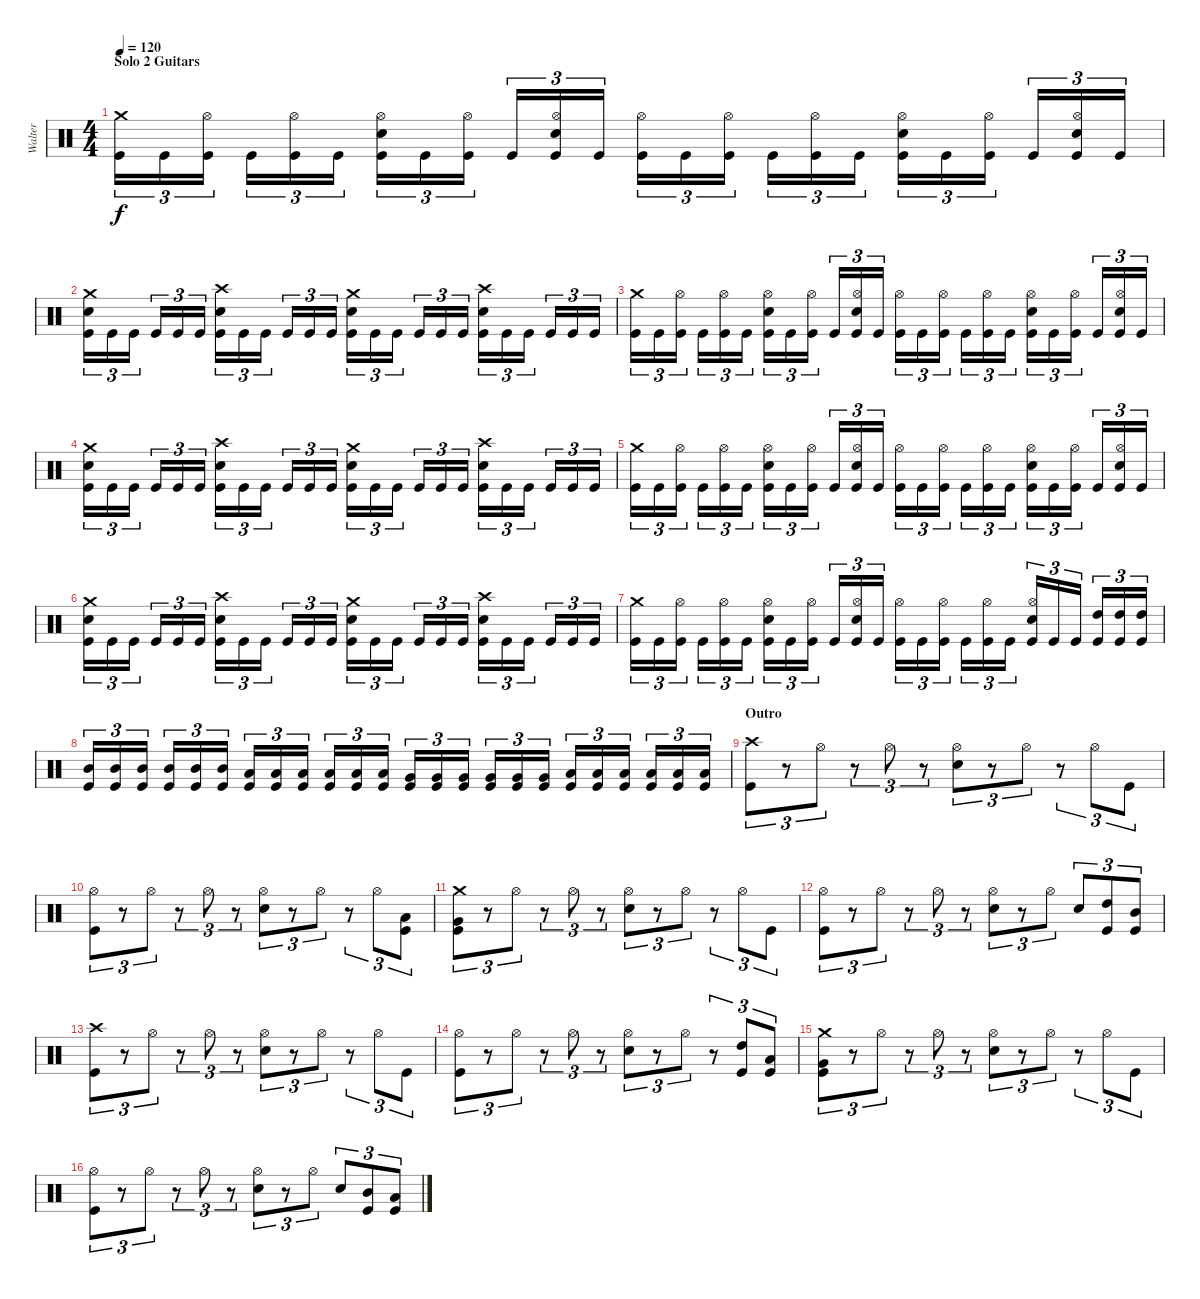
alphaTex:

\track ("Walter" "Walter") {instrument percussion}
\staff {score}
\articulation defaults
\ts (4 4)
\section ("" "Solo 2 Guitars")
\tempo 120
\clef neutral
\ks c
("Crash medium (hit)" "Kick (hit)").16{tu (3 2) dy f} "Kick (hit)".16{tu (3 2)} ("Hi-Hat (open)" "Kick (hit)").16{tu (3 2)} "Kick (hit)".16{tu (3 2)} ("Hi-Hat (open)" "Kick (hit)").16{tu (3 2)} "Kick (hit)".16{tu (3 2)} ("Hi-Hat (open)" "Electric Snare (hit)" "Kick (hit)").16{tu (3 2)} "Kick (hit)".16{tu (3 2)} ("Hi-Hat (open)" "Kick (hit)").16{tu (3 2)} "Kick (hit)".16{tu (3 2)} ("Hi-Hat (open)" "Electric Snare (hit)" "Kick (hit)").16{tu (3 2)} "Kick (hit)".16{tu (3 2)} ("Hi-Hat (open)" "Kick (hit)").16{tu (3 2)} "Kick (hit)".16{tu (3 2)} ("Hi-Hat (open)" "Kick (hit)").16{tu (3 2)} "Kick (hit)".16{tu (3 2)} ("Hi-Hat (open)" "Kick (hit)").16{tu (3 2)} "Kick (hit)".16{tu (3 2)} ("Hi-Hat (open)" "Electric Snare (hit)" "Kick (hit)").16{tu (3 2)} "Kick (hit)".16{tu (3 2)} ("Hi-Hat (open)" "Kick (hit)").16{tu (3 2)} "Kick (hit)".16{tu (3 2)} ("Hi-Hat (open)" "Electric Snare (hit)" "Kick (hit)").16{tu (3 2)} "Kick (hit)".16{tu (3 2)} |
("Crash medium (hit)" "Electric Snare (hit)" "Kick (hit)").16{tu (3 2)} "Kick (hit)".16{tu (3 2)} "Kick (hit)".16{tu (3 2)} "Kick (hit)".16{tu (3 2)} "Kick (hit)".16{tu (3 2)} "Kick (hit)".16{tu (3 2)} ("Crash high (hit)" "Electric Snare (hit)" "Kick (hit)").16{tu (3 2)} "Kick (hit)".16{tu (3 2)} "Kick (hit)".16{tu (3 2)} "Kick (hit)".16{tu (3 2)} "Kick (hit)".16{tu (3 2)} "Kick (hit)".16{tu (3 2)} ("Crash medium (hit)" "Electric Snare (hit)" "Kick (hit)").16{tu (3 2)} "Kick (hit)".16{tu (3 2)} "Kick (hit)".16{tu (3 2)} "Kick (hit)".16{tu (3 2)} "Kick (hit)".16{tu (3 2)} "Kick (hit)".16{tu (3 2)} ("Crash high (hit)" "Electric Snare (hit)" "Kick (hit)").16{tu (3 2)} "Kick (hit)".16{tu (3 2)} "Kick (hit)".16{tu (3 2)} "Kick (hit)".16{tu (3 2)} "Kick (hit)".16{tu (3 2)} "Kick (hit)".16{tu (3 2)} |
("Crash medium (hit)" "Kick (hit)").16{tu (3 2)} "Kick (hit)".16{tu (3 2)} ("Hi-Hat (open)" "Kick (hit)").16{tu (3 2)} "Kick (hit)".16{tu (3 2)} ("Hi-Hat (open)" "Kick (hit)").16{tu (3 2)} "Kick (hit)".16{tu (3 2)} ("Hi-Hat (open)" "Electric Snare (hit)" "Kick (hit)").16{tu (3 2)} "Kick (hit)".16{tu (3 2)} ("Hi-Hat (open)" "Kick (hit)").16{tu (3 2)} "Kick (hit)".16{tu (3 2)} ("Hi-Hat (open)" "Electric Snare (hit)" "Kick (hit)").16{tu (3 2)} "Kick (hit)".16{tu (3 2)} ("Hi-Hat (open)" "Kick (hit)").16{tu (3 2)} "Kick (hit)".16{tu (3 2)} ("Hi-Hat (open)" "Kick (hit)").16{tu (3 2)} "Kick (hit)".16{tu (3 2)} ("Hi-Hat (open)" "Kick (hit)").16{tu (3 2)} "Kick (hit)".16{tu (3 2)} ("Hi-Hat (open)" "Electric Snare (hit)" "Kick (hit)").16{tu (3 2)} "Kick (hit)".16{tu (3 2)} ("Hi-Hat (open)" "Kick (hit)").16{tu (3 2)} "Kick (hit)".16{tu (3 2)} ("Hi-Hat (open)" "Electric Snare (hit)" "Kick (hit)").16{tu (3 2)} "Kick (hit)".16{tu (3 2)} |
("Crash medium (hit)" "Electric Snare (hit)" "Kick (hit)").16{tu (3 2)} "Kick (hit)".16{tu (3 2)} "Kick (hit)".16{tu (3 2)} "Kick (hit)".16{tu (3 2)} "Kick (hit)".16{tu (3 2)} "Kick (hit)".16{tu (3 2)} ("Crash high (hit)" "Electric Snare (hit)" "Kick (hit)").16{tu (3 2)} "Kick (hit)".16{tu (3 2)} "Kick (hit)".16{tu (3 2)} "Kick (hit)".16{tu (3 2)} "Kick (hit)".16{tu (3 2)} "Kick (hit)".16{tu (3 2)} ("Crash medium (hit)" "Electric Snare (hit)" "Kick (hit)").16{tu (3 2)} "Kick (hit)".16{tu (3 2)} "Kick (hit)".16{tu (3 2)} "Kick (hit)".16{tu (3 2)} "Kick (hit)".16{tu (3 2)} "Kick (hit)".16{tu (3 2)} ("Crash high (hit)" "Electric Snare (hit)" "Kick (hit)").16{tu (3 2)} "Kick (hit)".16{tu (3 2)} "Kick (hit)".16{tu (3 2)} "Kick (hit)".16{tu (3 2)} "Kick (hit)".16{tu (3 2)} "Kick (hit)".16{tu (3 2)} |
("Crash medium (hit)" "Kick (hit)").16{tu (3 2)} "Kick (hit)".16{tu (3 2)} ("Hi-Hat (open)" "Kick (hit)").16{tu (3 2)} "Kick (hit)".16{tu (3 2)} ("Hi-Hat (open)" "Kick (hit)").16{tu (3 2)} "Kick (hit)".16{tu (3 2)} ("Hi-Hat (open)" "Electric Snare (hit)" "Kick (hit)").16{tu (3 2)} "Kick (hit)".16{tu (3 2)} ("Hi-Hat (open)" "Kick (hit)").16{tu (3 2)} "Kick (hit)".16{tu (3 2)} ("Hi-Hat (open)" "Electric Snare (hit)" "Kick (hit)").16{tu (3 2)} "Kick (hit)".16{tu (3 2)} ("Hi-Hat (open)" "Kick (hit)").16{tu (3 2)} "Kick (hit)".16{tu (3 2)} ("Hi-Hat (open)" "Kick (hit)").16{tu (3 2)} "Kick (hit)".16{tu (3 2)} ("Hi-Hat (open)" "Kick (hit)").16{tu (3 2)} "Kick (hit)".16{tu (3 2)} ("Hi-Hat (open)" "Electric Snare (hit)" "Kick (hit)").16{tu (3 2)} "Kick (hit)".16{tu (3 2)} ("Hi-Hat (open)" "Kick (hit)").16{tu (3 2)} "Kick (hit)".16{tu (3 2)} ("Hi-Hat (open)" "Electric Snare (hit)" "Kick (hit)").16{tu (3 2)} "Kick (hit)".16{tu (3 2)} |
("Crash medium (hit)" "Electric Snare (hit)" "Kick (hit)").16{tu (3 2)} "Kick (hit)".16{tu (3 2)} "Kick (hit)".16{tu (3 2)} "Kick (hit)".16{tu (3 2)} "Kick (hit)".16{tu (3 2)} "Kick (hit)".16{tu (3 2)} ("Crash high (hit)" "Electric Snare (hit)" "Kick (hit)").16{tu (3 2)} "Kick (hit)".16{tu (3 2)} "Kick (hit)".16{tu (3 2)} "Kick (hit)".16{tu (3 2)} "Kick (hit)".16{tu (3 2)} "Kick (hit)".16{tu (3 2)} ("Crash medium (hit)" "Electric Snare (hit)" "Kick (hit)").16{tu (3 2)} "Kick (hit)".16{tu (3 2)} "Kick (hit)".16{tu (3 2)} "Kick (hit)".16{tu (3 2)} "Kick (hit)".16{tu (3 2)} "Kick (hit)".16{tu (3 2)} ("Crash high (hit)" "Electric Snare (hit)" "Kick (hit)").16{tu (3 2)} "Kick (hit)".16{tu (3 2)} "Kick (hit)".16{tu (3 2)} "Kick (hit)".16{tu (3 2)} "Kick (hit)".16{tu (3 2)} "Kick (hit)".16{tu (3 2)} |
("Crash medium (hit)" "Kick (hit)").16{tu (3 2)} "Kick (hit)".16{tu (3 2)} ("Hi-Hat (open)" "Kick (hit)").16{tu (3 2)} "Kick (hit)".16{tu (3 2)} ("Hi-Hat (open)" "Kick (hit)").16{tu (3 2)} "Kick (hit)".16{tu (3 2)} ("Hi-Hat (open)" "Electric Snare (hit)" "Kick (hit)").16{tu (3 2)} "Kick (hit)".16{tu (3 2)} ("Hi-Hat (open)" "Kick (hit)").16{tu (3 2)} "Kick (hit)".16{tu (3 2)} ("Hi-Hat (open)" "Electric Snare (hit)" "Kick (hit)").16{tu (3 2)} "Kick (hit)".16{tu (3 2)} ("Hi-Hat (open)" "Kick (hit)").16{tu (3 2)} "Kick (hit)".16{tu (3 2)} ("Hi-Hat (open)" "Kick (hit)").16{tu (3 2)} "Kick (hit)".16{tu (3 2)} ("Hi-Hat (open)" "Kick (hit)").16{tu (3 2)} "Kick (hit)".16{tu (3 2)} ("Hi-Hat (open)" "Electric Snare (hit)" "Kick (hit)").16{tu (3 2)} "Kick (hit)".16{tu (3 2)} "Kick (hit)".16{tu (3 2)} ("High Tom (hit)" "Kick (hit)").16{tu (3 2)} ("High Tom (hit)" "Kick (hit)").16{tu (3 2)} ("High Tom (hit)" "Kick (hit)").16{tu (3 2)} |
("Mid Tom (hit)" "Kick (hit)").16{tu (3 2)} ("Mid Tom (hit)" "Kick (hit)").16{tu (3 2)} ("Mid Tom (hit)" "Kick (hit)").16{tu (3 2)} ("Mid Tom (hit)" "Kick (hit)").16{tu (3 2)} ("Mid Tom (hit)" "Kick (hit)").16{tu (3 2)} ("Mid Tom (hit)" "Kick (hit)").16{tu (3 2)} ("Low Tom (hit)" "Kick (hit)").16{tu (3 2)} ("Low Tom (hit)" "Kick (hit)").16{tu (3 2)} ("Low Tom (hit)" "Kick (hit)").16{tu (3 2)} ("Low Tom (hit)" "Kick (hit)").16{tu (3 2)} ("Low Tom (hit)" "Kick (hit)").16{tu (3 2)} ("Low Tom (hit)" "Kick (hit)").16{tu (3 2)} ("Very Low Tom (hit)" "Kick (hit)").16{tu (3 2)} ("Very Low Tom (hit)" "Kick (hit)").16{tu (3 2)} ("Very Low Tom (hit)" "Kick (hit)").16{tu (3 2)} ("Very Low Tom (hit)" "Kick (hit)").16{tu (3 2)} ("Very Low Tom (hit)" "Kick (hit)").16{tu (3 2)} ("Very Low Tom (hit)" "Kick (hit)").16{tu (3 2)} ("Low Floor Tom (hit)" "Kick (hit)").16{tu (3 2)} ("Low Floor Tom (hit)" "Kick (hit)").16{tu (3 2)} ("Low Floor Tom (hit)" "Kick (hit)").16{tu (3 2)} ("Low Floor Tom (hit)" "Kick (hit)").16{tu (3 2)} ("Low Floor Tom (hit)" "Kick (hit)").16{tu (3 2)} ("Low Floor Tom (hit)" "Kick (hit)").16{tu (3 2)} |
\section ("" "Outro")
("Crash high (hit)" "Kick (hit)").8{tu (3 2)} r.8{tu (3 2)} "Hi-Hat (open)".8{tu (3 2)} r.8{tu (3 2)} "Hi-Hat (open)".8{tu (3 2)} r.8{tu (3 2)} ("Hi-Hat (open)" "Electric Snare (hit)").8{tu (3 2)} r.8{tu (3 2)} "Hi-Hat (open)".8{tu (3 2)} r.8{tu (3 2)} "Hi-Hat (open)".8{tu (3 2)} "Kick (hit)".8{tu (3 2)} |
("Hi-Hat (open)" "Kick (hit)").8{tu (3 2)} r.8{tu (3 2)} "Hi-Hat (open)".8{tu (3 2)} r.8{tu (3 2)} "Hi-Hat (open)".8{tu (3 2)} r.8{tu (3 2)} ("Hi-Hat (open)" "Electric Snare (hit)").8{tu (3 2)} r.8{tu (3 2)} "Hi-Hat (open)".8{tu (3 2)} r.8{tu (3 2)} "Hi-Hat (open)".8{tu (3 2)} ("Low Tom (hit)" "Kick (hit)").8{tu (3 2)} |
("Crash medium (hit)" "Very Low Tom (hit)" "Kick (hit)").8{tu (3 2)} r.8{tu (3 2)} "Hi-Hat (open)".8{tu (3 2)} r.8{tu (3 2)} "Hi-Hat (open)".8{tu (3 2)} r.8{tu (3 2)} ("Hi-Hat (open)" "Electric Snare (hit)").8{tu (3 2)} r.8{tu (3 2)} "Hi-Hat (open)".8{tu (3 2)} r.8{tu (3 2)} "Hi-Hat (open)".8{tu (3 2)} "Kick (hit)".8{tu (3 2)} |
("Hi-Hat (open)" "Kick (hit)").8{tu (3 2)} r.8{tu (3 2)} "Hi-Hat (open)".8{tu (3 2)} r.8{tu (3 2)} "Hi-Hat (open)".8{tu (3 2)} r.8{tu (3 2)} ("Hi-Hat (open)" "Electric Snare (hit)").8{tu (3 2)} r.8{tu (3 2)} "Hi-Hat (open)".8{tu (3 2)} "Electric Snare (hit)".8{tu (3 2)} ("High Tom (hit)" "Kick (hit)").8{tu (3 2)} ("Mid Tom (hit)" "Kick (hit)").8{tu (3 2)} |
("Crash high (hit)" "Kick (hit)").8{tu (3 2)} r.8{tu (3 2)} "Hi-Hat (open)".8{tu (3 2)} r.8{tu (3 2)} "Hi-Hat (open)".8{tu (3 2)} r.8{tu (3 2)} ("Hi-Hat (open)" "Electric Snare (hit)").8{tu (3 2)} r.8{tu (3 2)} "Hi-Hat (open)".8{tu (3 2)} r.8{tu (3 2)} "Hi-Hat (open)".8{tu (3 2)} "Kick (hit)".8{tu (3 2)} |
("Hi-Hat (open)" "Kick (hit)").8{tu (3 2)} r.8{tu (3 2)} "Hi-Hat (open)".8{tu (3 2)} r.8{tu (3 2)} "Hi-Hat (open)".8{tu (3 2)} r.8{tu (3 2)} ("Hi-Hat (open)" "Electric Snare (hit)").8{tu (3 2)} r.8{tu (3 2)} "Hi-Hat (open)".8{tu (3 2)} r.8{tu (3 2)} ("High Tom (hit)" "Kick (hit)").8{tu (3 2)} ("Low Tom (hit)" "Kick (hit)").8{tu (3 2)} |
("Crash medium (hit)" "Very Low Tom (hit)" "Kick (hit)").8{tu (3 2)} r.8{tu (3 2)} "Hi-Hat (open)".8{tu (3 2)} r.8{tu (3 2)} "Hi-Hat (open)".8{tu (3 2)} r.8{tu (3 2)} ("Hi-Hat (open)" "Electric Snare (hit)").8{tu (3 2)} r.8{tu (3 2)} "Hi-Hat (open)".8{tu (3 2)} r.8{tu (3 2)} "Hi-Hat (open)".8{tu (3 2)} "Kick (hit)".8{tu (3 2)} |
("Hi-Hat (open)" "Kick (hit)").8{tu (3 2)} r.8{tu (3 2)} "Hi-Hat (open)".8{tu (3 2)} r.8{tu (3 2)} "Hi-Hat (open)".8{tu (3 2)} r.8{tu (3 2)} ("Hi-Hat (open)" "Electric Snare (hit)").8{tu (3 2)} r.8{tu (3 2)} "Hi-Hat (open)".8{tu (3 2)} "Electric Snare (hit)".8{tu (3 2)} ("Mid Tom (hit)" "Kick (hit)").8{tu (3 2)} ("Low Tom (hit)" "Kick (hit)").8{tu (3 2)}
